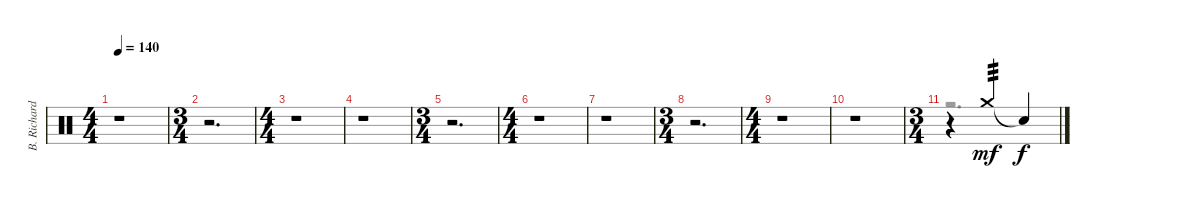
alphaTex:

\track ("B. Richardson Drums/Percussion" "B. Richard") {instrument percussion}
\staff {score}
\articulation defaults
\voice
\ts (4 4)
\tempo 140
\clef neutral
\ks c
r.1{dy pp} |
\ts (3 4)
r.2{d} |
\ts (4 4)
r.1 |
r.1 |
\ts (3 4)
r.2{d} |
\ts (4 4)
r.1 |
r.1 |
\ts (3 4)
r.2{d} |
\ts (4 4)
r.1 |
r.1 |
\ts (3 4)
r.4 "Crash medium (hit)".4{tp 3 dy mf volume 16} "Snare (hit)"{t}.4{dy f}
\voice
\clef neutral
\ottava regular
\simile none
\ks c
r.1{dy fff} |
r.2{d} |
r.1 |
r.1 |
r.2{d} |
r.1 |
r.1 |
r.2{d} |
r.1 |
r.1 |
r.2{d}
